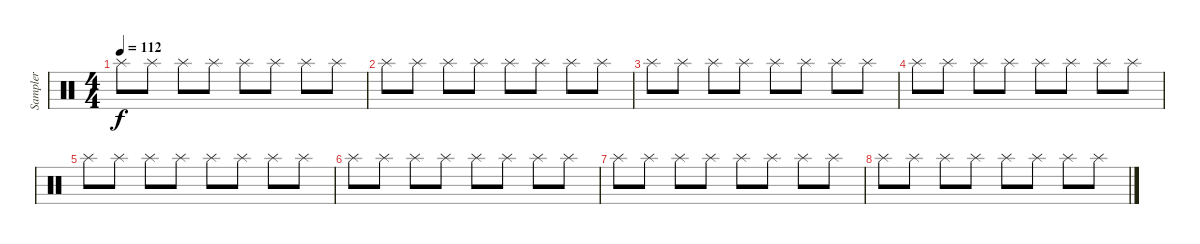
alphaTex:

\track ("Sampler" "Sampler") {instrument percussion}
\staff {score}
\articulation defaults
\ts (4 4)
\tempo 112
\clef neutral
\ks c "Splash (hit)".8{dy f} "Splash (hit)".8 "Splash (hit)".8 "Splash (hit)".8 "Splash (hit)".8 "Splash (hit)".8 "Splash (hit)".8 "Splash (hit)".8
|
"Splash (hit)".8 "Splash (hit)".8 "Splash (hit)".8 "Splash (hit)".8 "Splash (hit)".8 "Splash (hit)".8 "Splash (hit)".8 "Splash (hit)".8 |
"Splash (hit)".8 "Splash (hit)".8 "Splash (hit)".8 "Splash (hit)".8 "Splash (hit)".8 "Splash (hit)".8 "Splash (hit)".8 "Splash (hit)".8 |
"Splash (hit)".8 "Splash (hit)".8 "Splash (hit)".8 "Splash (hit)".8 "Splash (hit)".8 "Splash (hit)".8 "Splash (hit)".8 "Splash (hit)".8 |
"Splash (hit)".8 "Splash (hit)".8 "Splash (hit)".8 "Splash (hit)".8 "Splash (hit)".8 "Splash (hit)".8 "Splash (hit)".8 "Splash (hit)".8 |
"Splash (hit)".8 "Splash (hit)".8 "Splash (hit)".8 "Splash (hit)".8 "Splash (hit)".8 "Splash (hit)".8 "Splash (hit)".8 "Splash (hit)".8 |
"Splash (hit)".8 "Splash (hit)".8 "Splash (hit)".8 "Splash (hit)".8 "Splash (hit)".8 "Splash (hit)".8 "Splash (hit)".8 "Splash (hit)".8 |
"Splash (hit)".8 "Splash (hit)".8 "Splash (hit)".8 "Splash (hit)".8 "Splash (hit)".8 "Splash (hit)".8 "Splash (hit)".8 "Splash (hit)".8
